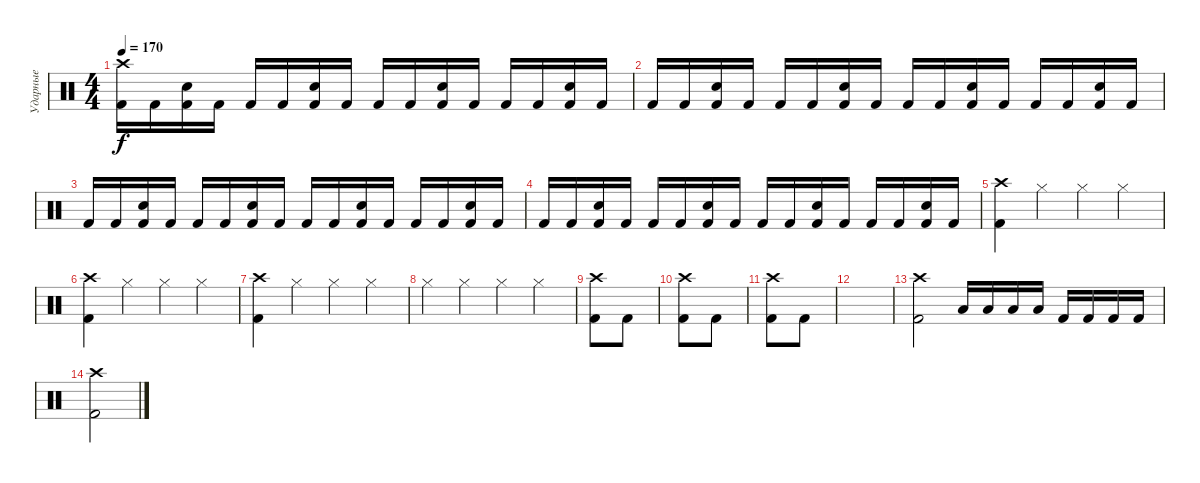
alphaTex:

\track ("Ударные" "Ударные") {instrument percussion}
\staff {score}
\articulation defaults
\ts (4 4)
\tempo 170
\clef neutral
\ks c
("Kick (hit) 2" "Crash high (hit)").16{dy f} "Kick (hit) 2".16 ("Kick (hit) 2" "Electric Snare (hit)").16 "Kick (hit) 2".16 "Kick (hit) 2".16 "Kick (hit) 2".16 ("Kick (hit) 2" "Electric Snare (hit)").16 "Kick (hit) 2".16 "Kick (hit) 2".16 "Kick (hit) 2".16 ("Kick (hit) 2" "Electric Snare (hit)").16 "Kick (hit) 2".16 "Kick (hit) 2".16 "Kick (hit) 2".16 ("Kick (hit) 2" "Electric Snare (hit)").16 "Kick (hit) 2".16 |
"Kick (hit) 2".16 "Kick (hit) 2".16 ("Kick (hit) 2" "Electric Snare (hit)").16 "Kick (hit) 2".16 "Kick (hit) 2".16 "Kick (hit) 2".16 ("Kick (hit) 2" "Electric Snare (hit)").16 "Kick (hit) 2".16 "Kick (hit) 2".16 "Kick (hit) 2".16 ("Kick (hit) 2" "Electric Snare (hit)").16 "Kick (hit) 2".16 "Kick (hit) 2".16 "Kick (hit) 2".16 ("Kick (hit) 2" "Electric Snare (hit)").16 "Kick (hit) 2".16 |
"Kick (hit) 2".16 "Kick (hit) 2".16 ("Kick (hit) 2" "Electric Snare (hit)").16 "Kick (hit) 2".16 "Kick (hit) 2".16 "Kick (hit) 2".16 ("Kick (hit) 2" "Electric Snare (hit)").16 "Kick (hit) 2".16 "Kick (hit) 2".16 "Kick (hit) 2".16 ("Kick (hit) 2" "Electric Snare (hit)").16 "Kick (hit) 2".16 "Kick (hit) 2".16 "Kick (hit) 2".16 ("Kick (hit) 2" "Electric Snare (hit)").16 "Kick (hit) 2".16 |
"Kick (hit) 2".16 "Kick (hit) 2".16 ("Kick (hit) 2" "Electric Snare (hit)").16 "Kick (hit) 2".16 "Kick (hit) 2".16 "Kick (hit) 2".16 ("Kick (hit) 2" "Electric Snare (hit)").16 "Kick (hit) 2".16 "Kick (hit) 2".16 "Kick (hit) 2".16 ("Kick (hit) 2" "Electric Snare (hit)").16 "Kick (hit) 2".16 "Kick (hit) 2".16 "Kick (hit) 2".16 ("Kick (hit) 2" "Electric Snare (hit)").16 "Kick (hit) 2".16 |
("Crash high (hit)" "Kick (hit) 2").4 "Hi-Hat (closed)".4 "Hi-Hat (closed)".4 "Hi-Hat (closed)".4 |
("Kick (hit) 2" "Crash high (hit)").4 "Hi-Hat (closed)".4 "Hi-Hat (closed)".4 "Hi-Hat (closed)".4 |
("Kick (hit) 2" "Crash high (hit)").4 "Hi-Hat (closed)".4 "Hi-Hat (closed)".4 "Hi-Hat (closed)".4 |
"Hi-Hat (closed)".4 "Hi-Hat (closed)".4 "Hi-Hat (closed)".4 "Hi-Hat (closed)".4 |
("Crash high (hit)" "Kick (hit) 2").8 "Kick (hit) 2".8 |
("Crash high (hit)" "Kick (hit) 2").8 "Kick (hit) 2".8 |
("Crash high (hit)" "Kick (hit) 2").8 "Kick (hit) 2".8 |
|
("Crash high (hit)" "Kick (hit) 2").2 "Low Tom (hit)".16 "Low Tom (hit)".16 "Low Tom (hit)".16 "Low Tom (hit)".16 "Kick (hit) 2".16 "Kick (hit) 2".16 "Kick (hit) 2".16 "Kick (hit) 2".16 |
("Crash high (hit)" "Kick (hit) 2").2
